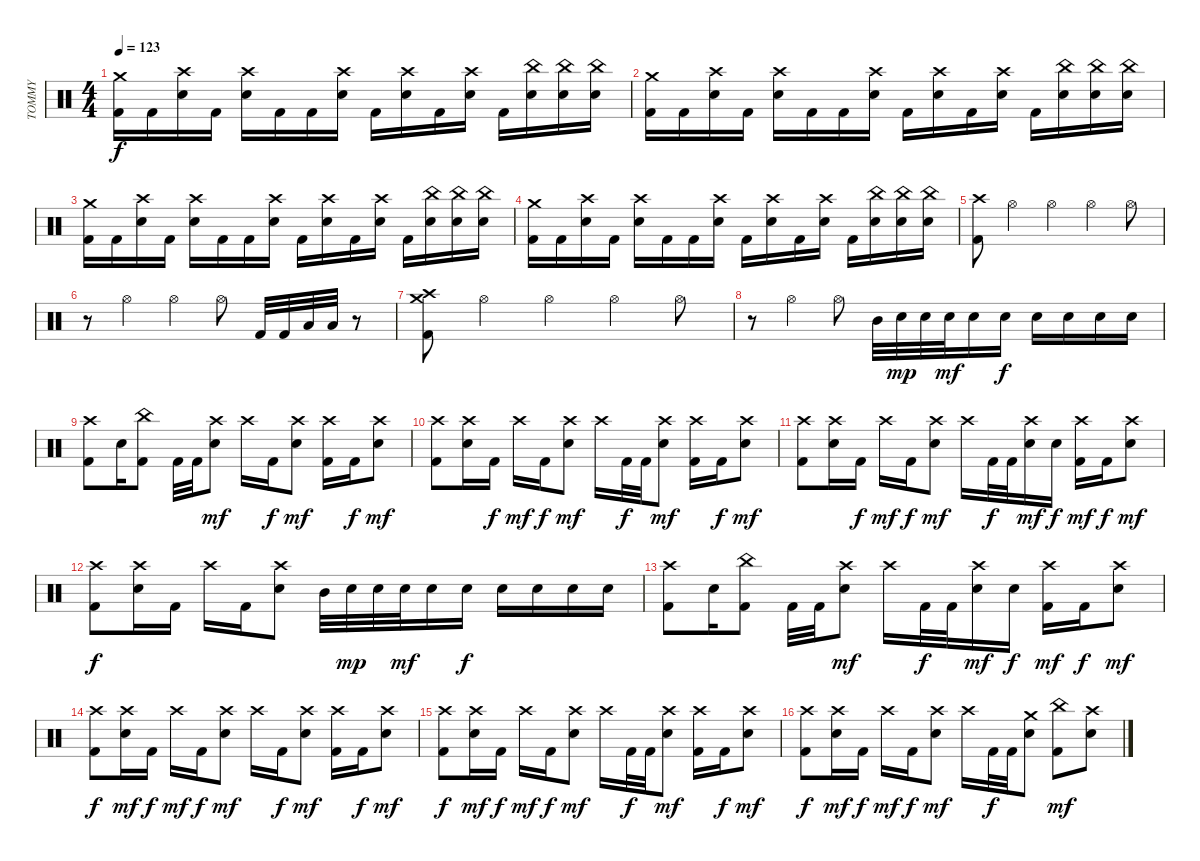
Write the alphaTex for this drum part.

\track ("TOMMY" "TOMMY") {instrument percussion}
\staff {score}
\articulation defaults
\ts (4 4)
\tempo 123
\clef neutral
\ks c
("Kick (hit) 2" "Crash medium (hit)").16{dy f} "Kick (hit) 2".16 ("Snare (hit) 2" "Crash high (hit)").16 "Kick (hit) 2".16 ("Snare (hit) 2" "Crash high (hit)").16 "Kick (hit) 2".16 "Kick (hit) 2".16 ("Snare (hit) 2" "Crash high (hit)").16 "Kick (hit) 2".16 ("Snare (hit) 2" "Crash high (hit)").16 "Kick (hit) 2".16 ("Snare (hit) 2" "Crash high (hit)").16 "Kick (hit) 2".16 ("Snare (hit) 2" "China (hit)").16 ("Snare (hit) 2" "China (hit)").16 ("Snare (hit) 2" "China (hit)").16 |
("Kick (hit) 2" "Crash medium (hit)").16 "Kick (hit) 2".16 ("Snare (hit) 2" "Crash high (hit)").16 "Kick (hit) 2".16 ("Snare (hit) 2" "Crash high (hit)").16 "Kick (hit) 2".16 "Kick (hit) 2".16 ("Snare (hit) 2" "Crash high (hit)").16 "Kick (hit) 2".16 ("Snare (hit) 2" "Crash high (hit)").16 "Kick (hit) 2".16 ("Snare (hit) 2" "Crash high (hit)").16 "Kick (hit) 2".16 ("Snare (hit) 2" "China (hit)").16 ("Snare (hit) 2" "China (hit)").16 ("Snare (hit) 2" "China (hit)").16 |
("Kick (hit) 2" "Crash medium (hit)").16 "Kick (hit) 2".16 ("Snare (hit) 2" "Crash high (hit)").16 "Kick (hit) 2".16 ("Snare (hit) 2" "Crash high (hit)").16 "Kick (hit) 2".16 "Kick (hit) 2".16 ("Snare (hit) 2" "Crash high (hit)").16 "Kick (hit) 2".16 ("Snare (hit) 2" "Crash high (hit)").16 "Kick (hit) 2".16 ("Snare (hit) 2" "Crash high (hit)").16 "Kick (hit) 2".16 ("Snare (hit) 2" "China (hit)").16 ("Snare (hit) 2" "China (hit)").16 ("Snare (hit) 2" "China (hit)").16 |
("Kick (hit) 2" "Crash medium (hit)").16 "Kick (hit) 2".16 ("Snare (hit) 2" "Crash high (hit)").16 "Kick (hit) 2".16 ("Snare (hit) 2" "Crash high (hit)").16 "Kick (hit) 2".16 "Kick (hit) 2".16 ("Snare (hit) 2" "Crash high (hit)").16 "Kick (hit) 2".16 ("Snare (hit) 2" "Crash high (hit)").16 "Kick (hit) 2".16 ("Snare (hit) 2" "Crash high (hit)").16 "Kick (hit) 2".16 ("Snare (hit) 2" "China (hit)").16 ("Snare (hit) 2" "China (hit)").16 ("Snare (hit) 2" "China (hit)").16 |
("Kick (hit) 2" "Crash high (hit)").8 "Hi-Hat (open)".4 "Hi-Hat (open)".4 "Hi-Hat (open)".4 "Hi-Hat (open)".8 |
r.8 "Hi-Hat (open)".4 "Hi-Hat (open)".4 "Hi-Hat (open)".8 "Kick (hit) 2".32 "Kick (hit) 2".32 "Low Floor Tom (hit)".32 "Low Floor Tom (hit)".32 r.8 |
("Kick (hit) 2" "Crash high (hit)" "Crash medium (hit)").8 "Hi-Hat (open)".4 "Hi-Hat (open)".4 "Hi-Hat (open)".4 "Hi-Hat (open)".8 |
r.8 "Hi-Hat (open)".4 "Hi-Hat (open)".8 "Mid Tom (hit)".32 "Snare (hit) 2".32{dy mp} "Snare (hit) 2".32 "Snare (hit) 2".32{dy mf} "Snare (hit) 2".16 "Snare (hit) 2".16{dy f} "Snare (hit) 2".16 "Snare (hit) 2".16 "Snare (hit) 2".16 "Snare (hit) 2".16 |
("Kick (hit) 2" "Crash high (hit)").8 "Snare (hit) 2".16 ("Kick (hit) 2" "China (hit)").8 "Kick (hit) 2".32 "Kick (hit) 2".32 ("Snare (hit) 2" "Crash high (hit)").8{dy mf} "Crash high (hit)".16 "Kick (hit) 2".16{dy f} ("Snare (hit) 2" "Crash high (hit)").8{dy mf} ("Kick (hit) 2" "Crash high (hit)").16 "Kick (hit) 2".16{dy f} ("Snare (hit) 2" "Crash high (hit)").8{dy mf} |
("Kick (hit) 2" "Crash high (hit)").8 ("Snare (hit) 2" "Crash high (hit)").16 "Kick (hit) 2".16{dy f} "Crash high (hit)".16{dy mf} "Kick (hit) 2".16{dy f} ("Snare (hit) 2" "Crash high (hit)").8{dy mf} "Crash high (hit)".16 "Kick (hit) 2".32{dy f} "Kick (hit) 2".32 ("Snare (hit) 2" "Crash high (hit)").8{dy mf} ("Kick (hit) 2" "Crash high (hit)").16 "Kick (hit) 2".16{dy f} ("Snare (hit) 2" "Crash high (hit)").8{dy mf} |
("Kick (hit) 2" "Crash high (hit)").8 ("Snare (hit) 2" "Crash high (hit)").16 "Kick (hit) 2".16{dy f} "Crash high (hit)".16{dy mf} "Kick (hit) 2".16{dy f} ("Snare (hit) 2" "Crash high (hit)").8{dy mf} "Crash high (hit)".16 "Kick (hit) 2".32{dy f} "Kick (hit) 2".32 ("Snare (hit) 2" "Crash high (hit)").16{dy mf} "Snare (hit) 2".16{dy f} ("Kick (hit) 2" "Crash high (hit)").16{dy mf} "Kick (hit) 2".16{dy f} ("Snare (hit) 2" "Crash high (hit)").8{dy mf} |
("Kick (hit) 2" "Crash high (hit)").8{dy f} ("Snare (hit) 2" "Crash high (hit)").16 "Kick (hit) 2".16 "Crash high (hit)".16 "Kick (hit) 2".16 ("Snare (hit) 2" "Crash high (hit)").8 "Mid Tom (hit)".32 "Snare (hit) 2".32{dy mp} "Snare (hit) 2".32 "Snare (hit) 2".32{dy mf} "Snare (hit) 2".16 "Snare (hit) 2".16{dy f} "Snare (hit) 2".16 "Snare (hit) 2".16 "Snare (hit) 2".16 "Snare (hit) 2".16 |
("Kick (hit) 2" "Crash high (hit)").8 "Snare (hit) 2".16 ("Kick (hit) 2" "China (hit)").8 "Kick (hit) 2".32 "Kick (hit) 2".32 ("Snare (hit) 2" "Crash high (hit)").8{dy mf} "Crash high (hit)".16 "Kick (hit) 2".32{dy f} "Kick (hit) 2".32 ("Snare (hit) 2" "Crash high (hit)").16{dy mf} "Snare (hit) 2".16{dy f} ("Kick (hit) 2" "Crash high (hit)").16{dy mf} "Kick (hit) 2".16{dy f} ("Snare (hit) 2" "Crash high (hit)").8{dy mf} |
("Kick (hit) 2" "Crash high (hit)").8{dy f} ("Snare (hit) 2" "Crash high (hit)").16{dy mf} "Kick (hit) 2".16{dy f} "Crash high (hit)".16{dy mf} "Kick (hit) 2".16{dy f} ("Snare (hit) 2" "Crash high (hit)").8{dy mf} "Crash high (hit)".16 "Kick (hit) 2".16{dy f} ("Snare (hit) 2" "Crash high (hit)").8{dy mf} ("Kick (hit) 2" "Crash high (hit)").16 "Kick (hit) 2".16{dy f} ("Snare (hit) 2" "Crash high (hit)").8{dy mf} |
("Kick (hit) 2" "Crash high (hit)").8{dy f} ("Snare (hit) 2" "Crash high (hit)").16{dy mf} "Kick (hit) 2".16{dy f} "Crash high (hit)".16{dy mf} "Kick (hit) 2".16{dy f} ("Snare (hit) 2" "Crash high (hit)").8{dy mf} "Crash high (hit)".16 "Kick (hit) 2".32{dy f} "Kick (hit) 2".32 ("Snare (hit) 2" "Crash high (hit)").8{dy mf} ("Kick (hit) 2" "Crash high (hit)").16 "Kick (hit) 2".16{dy f} ("Snare (hit) 2" "Crash high (hit)").8{dy mf} |
("Kick (hit) 2" "Crash high (hit)").8{dy f} ("Snare (hit) 2" "Crash high (hit)").16{dy mf} "Kick (hit) 2".16{dy f} "Crash high (hit)".16{dy mf} "Kick (hit) 2".16{dy f} ("Snare (hit) 2" "Crash high (hit)").8{dy mf} "Crash high (hit)".16 "Kick (hit) 2".32{dy f} "Kick (hit) 2".32 ("Snare (hit) 2" "Crash medium (hit)").8 ("Kick (hit) 2" "China (hit)").8{dy mf} ("Snare (hit) 2" "Crash high (hit)").8
